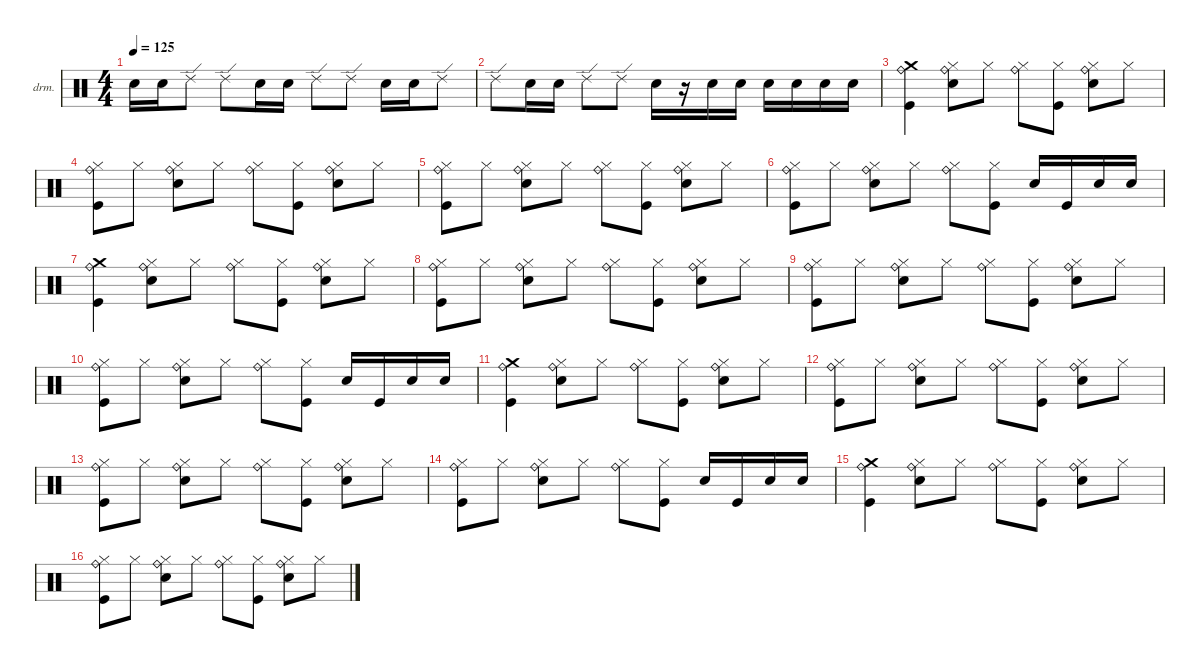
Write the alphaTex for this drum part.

\defaultSystemsLayout 4
\hideDynamics
\bracketExtendMode nobrackets
\firstSystemTrackNameOrientation horizontal
\otherSystemsTrackNameOrientation horizontal
\track ("Drum" "drm.") {instrument percussion}
\staff {score}
\articulation defaults
\ts (4 4)
\tempo 125
\clef neutral
\ks c "Snare (hit) 2".16{dy f} "Snare (hit) 2".16 "Ride (edge) 2".8 "Ride (edge) 2".8 "Snare (hit) 2".16 "Snare (hit) 2".16 "Ride (edge) 2".8 "Ride (edge) 2".8 "Snare (hit) 2".16 "Snare (hit) 2".16 "Ride (edge) 2".8
|
"Ride (edge) 2".8 "Snare (hit) 2".16 "Snare (hit) 2".16 "Ride (edge) 2".8 "Ride (edge) 2".8 "Snare (hit) 2".16 r.16 "Snare (hit) 2".16 "Snare (hit) 2".16 "Snare (hit) 2".16 "Snare (hit) 2".16 "Snare (hit) 2".16 "Snare (hit) 2".16 |
("Kick (hit)" "Crash medium (hit)" "Ride (bell)").4 ("Snare (hit) 2" "Hi-Hat (closed)" "Ride (bell)").8 "Hi-Hat (closed)".8 ("Hi-Hat (closed)" "Ride (bell)").8 ("Kick (hit)" "Hi-Hat (closed)").8 ("Snare (hit) 2" "Hi-Hat (closed)" "Ride (bell)").8 "Hi-Hat (closed)".8 |
("Kick (hit)" "Hi-Hat (closed)" "Ride (bell)").8 "Hi-Hat (closed)".8 ("Snare (hit) 2" "Hi-Hat (closed)" "Ride (bell)").8 "Hi-Hat (closed)".8 ("Hi-Hat (closed)" "Ride (bell)").8 ("Kick (hit)" "Hi-Hat (closed)").8 ("Snare (hit) 2" "Hi-Hat (closed)" "Ride (bell)").8 "Hi-Hat (closed)".8 |
("Kick (hit)" "Hi-Hat (closed)" "Ride (bell)").8 "Hi-Hat (closed)".8 ("Snare (hit) 2" "Hi-Hat (closed)" "Ride (bell)").8 "Hi-Hat (closed)".8 ("Hi-Hat (closed)" "Ride (bell)").8 ("Kick (hit)" "Hi-Hat (closed)").8 ("Snare (hit) 2" "Hi-Hat (closed)" "Ride (bell)").8 "Hi-Hat (closed)".8 |
("Kick (hit)" "Hi-Hat (closed)" "Ride (bell)").8 "Hi-Hat (closed)".8 ("Snare (hit) 2" "Hi-Hat (closed)" "Ride (bell)").8 "Hi-Hat (closed)".8 ("Hi-Hat (closed)" "Ride (bell)").8 ("Kick (hit)" "Hi-Hat (closed)").8 "Snare (hit) 2".16 "Kick (hit)".16 "Snare (hit) 2".16 "Snare (hit) 2".16 |
("Kick (hit)" "Crash medium (hit)" "Ride (bell)").4 ("Snare (hit) 2" "Hi-Hat (closed)" "Ride (bell)").8 "Hi-Hat (closed)".8 ("Hi-Hat (closed)" "Ride (bell)").8 ("Kick (hit)" "Hi-Hat (closed)").8 ("Snare (hit) 2" "Hi-Hat (closed)" "Ride (bell)").8 "Hi-Hat (closed)".8 |
("Kick (hit)" "Hi-Hat (closed)" "Ride (bell)").8 "Hi-Hat (closed)".8 ("Snare (hit) 2" "Hi-Hat (closed)" "Ride (bell)").8 "Hi-Hat (closed)".8 ("Hi-Hat (closed)" "Ride (bell)").8 ("Kick (hit)" "Hi-Hat (closed)").8 ("Snare (hit) 2" "Hi-Hat (closed)" "Ride (bell)").8 "Hi-Hat (closed)".8 |
("Kick (hit)" "Hi-Hat (closed)" "Ride (bell)").8 "Hi-Hat (closed)".8 ("Snare (hit) 2" "Hi-Hat (closed)" "Ride (bell)").8 "Hi-Hat (closed)".8 ("Hi-Hat (closed)" "Ride (bell)").8 ("Kick (hit)" "Hi-Hat (closed)").8 ("Snare (hit) 2" "Hi-Hat (closed)" "Ride (bell)").8 "Hi-Hat (closed)".8 |
("Kick (hit)" "Hi-Hat (closed)" "Ride (bell)").8 "Hi-Hat (closed)".8 ("Snare (hit) 2" "Hi-Hat (closed)" "Ride (bell)").8 "Hi-Hat (closed)".8 ("Hi-Hat (closed)" "Ride (bell)").8 ("Kick (hit)" "Hi-Hat (closed)").8 "Snare (hit) 2".16 "Kick (hit)".16 "Snare (hit) 2".16 "Snare (hit) 2".16 |
("Kick (hit)" "Crash medium (hit)" "Ride (bell)").4 ("Snare (hit) 2" "Hi-Hat (closed)" "Ride (bell)").8 "Hi-Hat (closed)".8 ("Hi-Hat (closed)" "Ride (bell)").8 ("Kick (hit)" "Hi-Hat (closed)").8 ("Snare (hit) 2" "Hi-Hat (closed)" "Ride (bell)").8 "Hi-Hat (closed)".8 |
("Kick (hit)" "Hi-Hat (closed)" "Ride (bell)").8 "Hi-Hat (closed)".8 ("Snare (hit) 2" "Hi-Hat (closed)" "Ride (bell)").8 "Hi-Hat (closed)".8 ("Hi-Hat (closed)" "Ride (bell)").8 ("Kick (hit)" "Hi-Hat (closed)").8 ("Snare (hit) 2" "Hi-Hat (closed)" "Ride (bell)").8 "Hi-Hat (closed)".8 |
("Kick (hit)" "Hi-Hat (closed)" "Ride (bell)").8 "Hi-Hat (closed)".8 ("Snare (hit) 2" "Hi-Hat (closed)" "Ride (bell)").8 "Hi-Hat (closed)".8 ("Hi-Hat (closed)" "Ride (bell)").8 ("Kick (hit)" "Hi-Hat (closed)").8 ("Snare (hit) 2" "Hi-Hat (closed)" "Ride (bell)").8 "Hi-Hat (closed)".8 |
("Kick (hit)" "Hi-Hat (closed)" "Ride (bell)").8 "Hi-Hat (closed)".8 ("Snare (hit) 2" "Hi-Hat (closed)" "Ride (bell)").8 "Hi-Hat (closed)".8 ("Hi-Hat (closed)" "Ride (bell)").8 ("Kick (hit)" "Hi-Hat (closed)").8 "Snare (hit) 2".16 "Kick (hit)".16 "Snare (hit) 2".16 "Snare (hit) 2".16 |
("Kick (hit)" "Crash medium (hit)" "Ride (bell)").4 ("Snare (hit) 2" "Hi-Hat (closed)" "Ride (bell)").8 "Hi-Hat (closed)".8 ("Hi-Hat (closed)" "Ride (bell)").8 ("Kick (hit)" "Hi-Hat (closed)").8 ("Snare (hit) 2" "Hi-Hat (closed)" "Ride (bell)").8 "Hi-Hat (closed)".8 |
("Kick (hit)" "Hi-Hat (closed)" "Ride (bell)").8 "Hi-Hat (closed)".8 ("Snare (hit) 2" "Hi-Hat (closed)" "Ride (bell)").8 "Hi-Hat (closed)".8 ("Hi-Hat (closed)" "Ride (bell)").8 ("Kick (hit)" "Hi-Hat (closed)").8 ("Snare (hit) 2" "Hi-Hat (closed)" "Ride (bell)").8 "Hi-Hat (closed)".8
